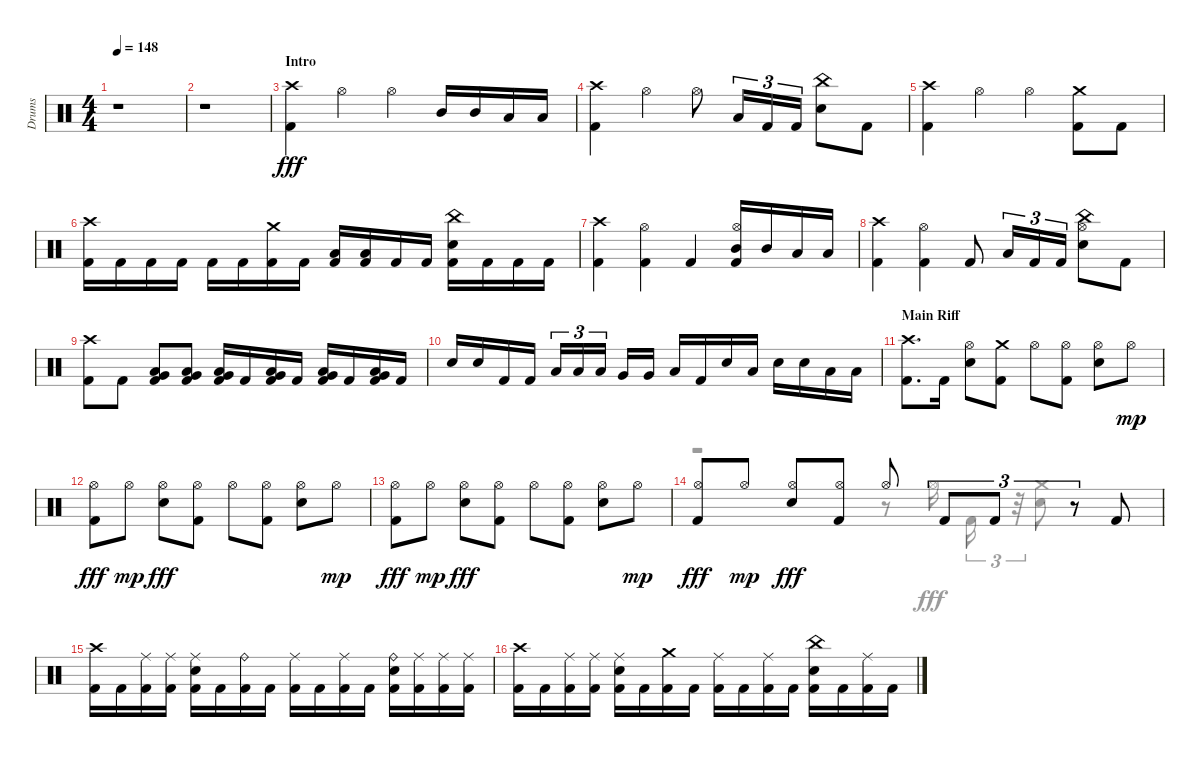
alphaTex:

\track ("Drums" "Drums") {instrument percussion}
\staff {score}
\articulation defaults
\voice
\ts (4 4)
\tempo 148
\clef neutral
\ks aminor
r.1{dy fff} |
r.1 |
\section ("" "Intro")
("Kick (hit) 2" "Crash high (hit)").4 "Hi-Hat (open)".4 "Hi-Hat (open)".4 "Mid Tom (hit)".16 "Mid Tom (hit)".16 "Low Tom (hit)".16 "Low Tom (hit)".16 |
("Kick (hit) 2" "Crash high (hit)").4 "Hi-Hat (open)".4 "Hi-Hat (open)".8 "Low Tom (hit)".16{tu (3 2)} "Kick (hit) 2".16{tu (3 2)} "Kick (hit) 2".16{tu (3 2)} ("Snare (hit) 2" "China (hit)").8 "Kick (hit) 2".8 |
("Kick (hit) 2" "Crash high (hit)").4 "Hi-Hat (open)".4 "Hi-Hat (open)".4 ("Kick (hit) 2" "Crash medium (hit)").8 "Kick (hit) 2".8 |
("Kick (hit) 2" "Crash high (hit)").16 "Kick (hit) 2".16 "Kick (hit) 2".16 "Kick (hit) 2".16 "Kick (hit) 2".16 "Kick (hit) 2".16 ("Kick (hit) 2" "Crash medium (hit)").16 "Kick (hit) 2".16 ("Kick (hit) 2" "Low Tom (hit)").16 ("Kick (hit) 2" "Low Tom (hit)").16 "Kick (hit) 2".16 "Kick (hit) 2".16 ("Kick (hit) 2" "Snare (hit) 2" "China (hit)").16 "Kick (hit) 2".16 "Kick (hit) 2".16 "Kick (hit) 2".16 |
("Kick (hit) 2" "Crash high (hit)").4 ("Kick (hit) 2" "Hi-Hat (open)").4 "Kick (hit) 2".4 ("Kick (hit) 2" "Hi-Hat (open)" "Mid Tom (hit)").16 "Mid Tom (hit)".16 "Low Tom (hit)".16 "Low Tom (hit)".16 |
("Kick (hit) 2" "Crash high (hit)").4 ("Kick (hit) 2" "Hi-Hat (open)").4 "Kick (hit) 2".8 "Low Tom (hit)".16{tu (3 2)} "Kick (hit) 2".16{tu (3 2)} "Kick (hit) 2".16{tu (3 2)} ("Snare (hit) 2" "Hi-Hat (open)" "China (hit)").8 "Kick (hit) 2".8 |
("Kick (hit) 2" "Crash high (hit)").8 "Kick (hit) 2".8 ("Kick (hit) 2" "Low Floor Tom (hit)" "Very Low Tom (hit)").8 ("Kick (hit) 2" "Low Floor Tom (hit)" "Very Low Tom (hit)").8 ("Kick (hit) 2" "Low Floor Tom (hit)" "Very Low Tom (hit)").16 "Kick (hit) 2".16 ("Kick (hit) 2" "Low Floor Tom (hit)" "Very Low Tom (hit)").16 "Kick (hit) 2".16 ("Kick (hit) 2" "Low Floor Tom (hit)" "Very Low Tom (hit)").16 "Kick (hit) 2".16 ("Kick (hit) 2" "Low Floor Tom (hit)" "Very Low Tom (hit)").16 "Kick (hit) 2".16 |
"Snare (hit) 2".16 "Snare (hit) 2".16 "Kick (hit) 2".16 "Kick (hit) 2".16 "Low Tom (hit)".16{tu (3 2)} "Low Tom (hit)".16{tu (3 2)} "Low Tom (hit)".16{tu (3 2)} "Very Low Tom (hit)".16 "Very Low Tom (hit)".16 "Low Floor Tom (hit)".16 "Kick (hit) 2".16 "Snare (hit) 2".16 "Low Floor Tom (hit)".16 "Snare (hit) 2".16 "Snare (hit) 2".16 "Low Floor Tom (hit)".16 "Low Floor Tom (hit)".16 |
\section ("" "Main Riff")
("Kick (hit) 2" "Crash high (hit)").8{d} "Kick (hit) 2".16 ("Snare (hit) 2" "Hi-Hat (open)").8 ("Kick (hit) 2" "Crash medium (hit)").8 "Hi-Hat (open)".8 ("Kick (hit) 2" "Hi-Hat (open)").8 ("Snare (hit) 2" "Hi-Hat (open)").8 "Hi-Hat (open)".8{dy mp} |
("Kick (hit) 2" "Hi-Hat (open)").8{dy fff} "Hi-Hat (open)".8{dy mp} ("Snare (hit) 2" "Hi-Hat (open)").8{dy fff} ("Kick (hit) 2" "Hi-Hat (open)").8 "Hi-Hat (open)".8 ("Kick (hit) 2" "Hi-Hat (open)").8 ("Snare (hit) 2" "Hi-Hat (open)").8 "Hi-Hat (open)".8{dy mp} |
("Kick (hit) 2" "Hi-Hat (open)").8{dy fff} "Hi-Hat (open)".8{dy mp} ("Snare (hit) 2" "Hi-Hat (open)").8{dy fff} ("Kick (hit) 2" "Hi-Hat (open)").8 "Hi-Hat (open)".8 ("Kick (hit) 2" "Hi-Hat (open)").8 ("Snare (hit) 2" "Hi-Hat (open)").8 "Hi-Hat (open)".8{dy mp} |
("Kick (hit) 2" "Hi-Hat (open)").8{dy fff} "Hi-Hat (open)".8{dy mp} ("Snare (hit) 2" "Hi-Hat (open)").8{dy fff} ("Kick (hit) 2" "Hi-Hat (open)").8 "Hi-Hat (open)".8 "Kick (hit) 2".8{tu (3 2)} "Kick (hit) 2".8{tu (3 2)} r.8{tu (3 2)} "Kick (hit) 2".8 |
("Kick (hit) 2" "Crash high (hit)").16 "Kick (hit) 2".16 ("Ride (middle)" "Kick (hit) 2").16 ("Kick (hit) 2" "Ride (middle)").16 ("Kick (hit) 2" "Snare (hit) 2" "Ride (middle)").16 "Kick (hit) 2".16 ("Ride (bell)" "Kick (hit) 2").16 "Kick (hit) 2".16 ("Kick (hit) 2" "Ride (middle)").16 "Kick (hit) 2".16 ("Kick (hit) 2" "Ride (middle)").16 "Kick (hit) 2".16 ("Ride (bell)" "Snare (hit) 2" "Kick (hit) 2").16 ("Kick (hit) 2" "Ride (middle)").16 ("Ride (middle)" "Kick (hit) 2").16 ("Kick (hit) 2" "Ride (middle)").16 |
("Crash high (hit)" "Kick (hit) 2").16 "Kick (hit) 2".16 ("Kick (hit) 2" "Ride (middle)").16 ("Kick (hit) 2" "Ride (middle)").16 ("Kick (hit) 2" "Snare (hit) 2" "Ride (middle)").16 "Kick (hit) 2".16 ("Kick (hit) 2" "Crash medium (hit)").16 "Kick (hit) 2".16 ("Kick (hit) 2" "Ride (middle)").16 "Kick (hit) 2".16 ("Kick (hit) 2" "Ride (middle)").16 "Kick (hit) 2".16 ("Kick (hit) 2" "China (hit)" "Snare (hit) 2").16 "Kick (hit) 2".16 ("Kick (hit) 2" "Ride (middle)").16 "Kick (hit) 2".16
\voice
\clef neutral
\ottava regular
\simile none
\ks aminor
|
|
|
|
|
|
|
|
|
|
|
|
|
r.2 r.8 "Hi-Hat (open)".16 "Kick (hit) 2".16{tu (3 2) dy fff} r.32{tu (3 2)} ("Snare (hit) 2" "Crash medium (hit)").8 |
|
